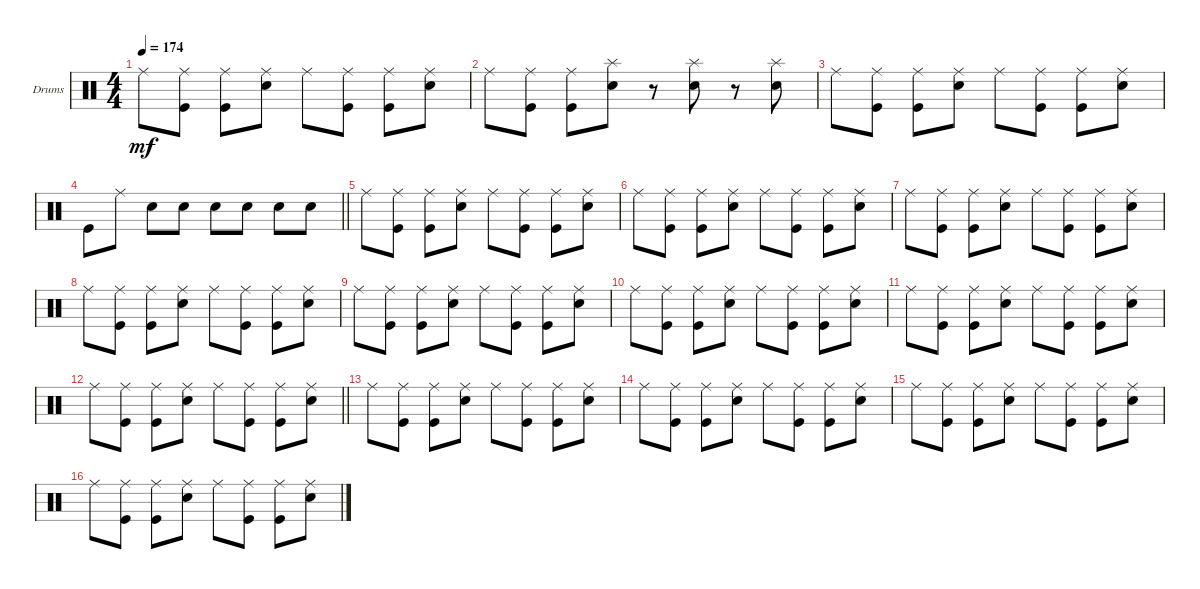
\bracketExtendMode groupsimilarinstruments
\firstSystemTrackNameOrientation horizontal
\otherSystemsTrackNameOrientation horizontal
\track ("Drumkit" "Drums") {instrument percussion}
\staff {score}
\articulation defaults
\ts (4 4)
\tempo 174
\clef neutral
\scale
0.333333
\ks c "Ride (middle)".8{dy mf}
("Kick (hit)" "Ride (middle)").8 ("Kick (hit)" "Ride (middle)").8 ("Snare (hit) 2" "Ride (middle)").8 "Ride (middle)".8 ("Ride (middle)" "Kick (hit)").8 ("Kick (hit)" "Ride (middle)").8 ("Snare (hit) 2" "Ride (middle)").8 |
\scale
0.333333 "Ride (middle)".8 ("Kick (hit)" "Ride (middle)").8 ("Kick (hit)" "Ride (middle)").8 ("Snare (hit) 2" "Splash (hit)").8 r.8 ("Snare (hit) 2" "Splash (hit)").8 r.8 ("Splash (hit)" "Snare (hit) 2").8 |
\scale
0.333333 "Ride (middle)".8 ("Kick (hit)" "Ride (middle)").8 ("Kick (hit)" "Ride (middle)").8 ("Snare (hit) 2" "Ride (middle)").8 "Ride (middle)".8 ("Ride (middle)" "Kick (hit)").8 ("Kick (hit)" "Ride (middle)").8 ("Snare (hit) 2" "Ride (middle)").8 |
\scale
0.333333
\barLineRight lightlight "Kick (hit)".8 "Ride (middle)".8 "Snare (hit) 2".8 "Snare (hit) 2".8 "Snare (hit) 2".8 "Snare (hit) 2".8 "Snare (hit) 2".8 "Snare (hit) 2".8
|
\scale
0.333333 "Ride (middle)".8 ("Kick (hit)" "Ride (middle)").8 ("Kick (hit)" "Ride (middle)").8 ("Snare (hit) 2" "Ride (middle)").8 "Ride (middle)".8 ("Ride (middle)" "Kick (hit)").8 ("Kick (hit)" "Ride (middle)").8 ("Snare (hit) 2" "Ride (middle)").8 |
\scale
0.333333 "Ride (middle)".8 ("Kick (hit)" "Ride (middle)").8 ("Kick (hit)" "Ride (middle)").8 ("Snare (hit) 2" "Ride (middle)").8 "Ride (middle)".8 ("Ride (middle)" "Kick (hit)").8 ("Kick (hit)" "Ride (middle)").8 ("Snare (hit) 2" "Ride (middle)").8 |
\scale
0.333333 "Ride (middle)".8 ("Kick (hit)" "Ride (middle)").8 ("Kick (hit)" "Ride (middle)").8 ("Snare (hit) 2" "Ride (middle)").8 "Ride (middle)".8 ("Ride (middle)" "Kick (hit)").8 ("Kick (hit)" "Ride (middle)").8 ("Snare (hit) 2" "Ride (middle)").8 |
\scale
0.333333 "Ride (middle)".8 ("Kick (hit)" "Ride (middle)").8 ("Kick (hit)" "Ride (middle)").8 ("Snare (hit) 2" "Ride (middle)").8 "Ride (middle)".8 ("Ride (middle)" "Kick (hit)").8 ("Kick (hit)" "Ride (middle)").8 ("Snare (hit) 2" "Ride (middle)").8 |
\scale
0.333333 "Ride (middle)".8 ("Kick (hit)" "Ride (middle)").8 ("Kick (hit)" "Ride (middle)").8 ("Snare (hit) 2" "Ride (middle)").8 "Ride (middle)".8 ("Ride (middle)" "Kick (hit)").8 ("Kick (hit)" "Ride (middle)").8 ("Snare (hit) 2" "Ride (middle)").8 |
\scale
0.333333 "Ride (middle)".8 ("Kick (hit)" "Ride (middle)").8 ("Kick (hit)" "Ride (middle)").8 ("Snare (hit) 2" "Ride (middle)").8 "Ride (middle)".8 ("Ride (middle)" "Kick (hit)").8 ("Kick (hit)" "Ride (middle)").8 ("Snare (hit) 2" "Ride (middle)").8 |
\scale
0.333333 "Ride (middle)".8 ("Kick (hit)" "Ride (middle)").8 ("Kick (hit)" "Ride (middle)").8 ("Snare (hit) 2" "Ride (middle)").8 "Ride (middle)".8 ("Ride (middle)" "Kick (hit)").8 ("Kick (hit)" "Ride (middle)").8 ("Snare (hit) 2" "Ride (middle)").8 |
\scale
0.333333
\barLineRight lightlight "Ride (middle)".8
("Kick (hit)" "Ride (middle)").8 ("Kick (hit)" "Ride (middle)").8 ("Snare (hit) 2" "Ride (middle)").8 "Ride (middle)".8 ("Ride (middle)" "Kick (hit)").8 ("Kick (hit)" "Ride (middle)").8 ("Snare (hit) 2" "Ride (middle)").8 |
\scale
0.333333 "Ride (middle)".8 ("Kick (hit)" "Ride (middle)").8 ("Kick (hit)" "Ride (middle)").8 ("Snare (hit) 2" "Ride (middle)").8 "Ride (middle)".8 ("Ride (middle)" "Kick (hit)").8 ("Kick (hit)" "Ride (middle)").8 ("Snare (hit) 2" "Ride (middle)").8 |
\scale
0.333333 "Ride (middle)".8 ("Kick (hit)" "Ride (middle)").8 ("Kick (hit)" "Ride (middle)").8 ("Snare (hit) 2" "Ride (middle)").8 "Ride (middle)".8 ("Ride (middle)" "Kick (hit)").8 ("Kick (hit)" "Ride (middle)").8 ("Snare (hit) 2" "Ride (middle)").8 |
\scale
0.333333 "Ride (middle)".8 ("Kick (hit)" "Ride (middle)").8 ("Kick (hit)" "Ride (middle)").8 ("Snare (hit) 2" "Ride (middle)").8 "Ride (middle)".8 ("Ride (middle)" "Kick (hit)").8 ("Kick (hit)" "Ride (middle)").8 ("Snare (hit) 2" "Ride (middle)").8 |
\scale
0.333333 "Ride (middle)".8 ("Kick (hit)" "Ride (middle)").8 ("Kick (hit)" "Ride (middle)").8 ("Snare (hit) 2" "Ride (middle)").8 "Ride (middle)".8 ("Ride (middle)" "Kick (hit)").8 ("Kick (hit)" "Ride (middle)").8 ("Snare (hit) 2" "Ride (middle)").8
